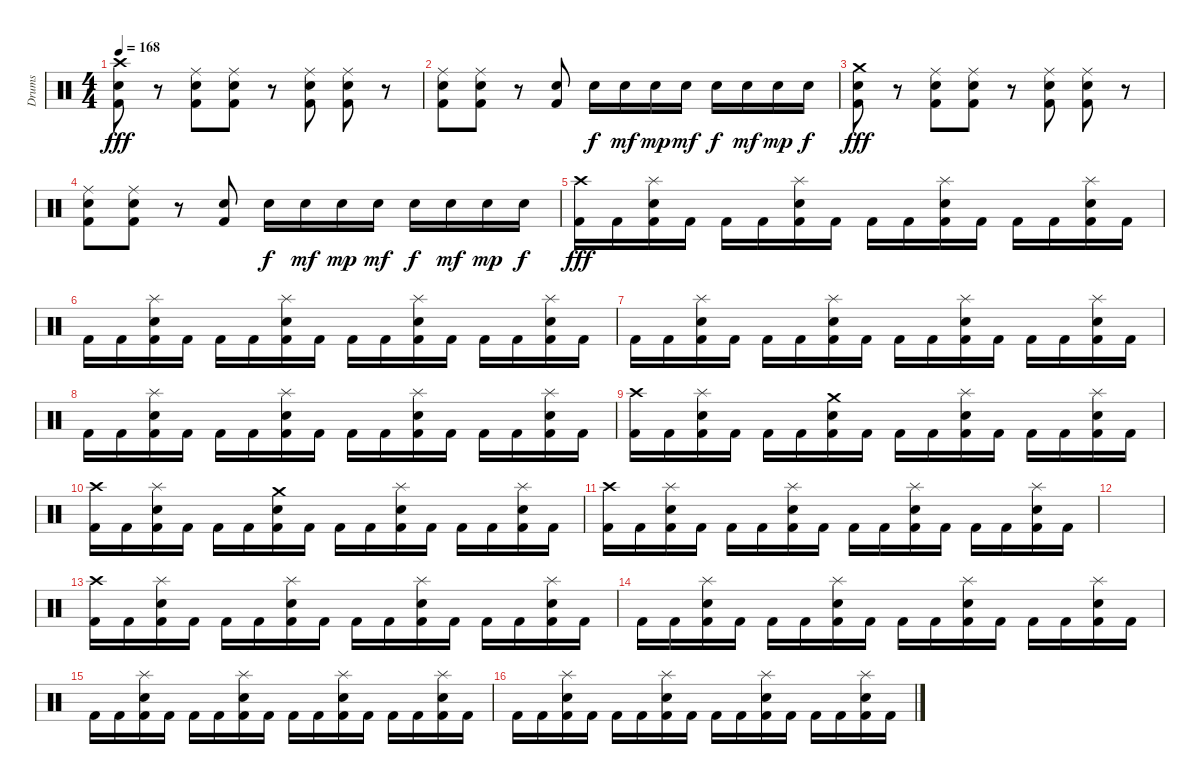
\track ("Drums" "Drums") {instrument percussion}
\staff {score}
\articulation defaults
\ts (4 4)
\tempo 168
\clef neutral
\ks c
("Crash high (hit)" "Snare (hit) 2" "Kick (hit) 2").8{dy fff} r.8 ("Ride (middle)" "Snare (hit) 2" "Kick (hit) 2").8 ("Ride (middle)" "Snare (hit) 2" "Kick (hit) 2").8 r.8 ("Ride (middle)" "Snare (hit) 2" "Kick (hit) 2").8 ("Ride (middle)" "Snare (hit) 2" "Kick (hit) 2").8 r.8 |
("Ride (middle)" "Snare (hit) 2" "Kick (hit) 2").8 ("Ride (middle)" "Snare (hit) 2" "Kick (hit) 2").8 r.8 ("Snare (hit) 2" "Kick (hit) 2").8 "Snare (hit) 2".16{dy f} "Snare (hit) 2".16{dy mf} "Snare (hit) 2".16{dy mp} "Snare (hit) 2".16{dy mf} "Snare (hit) 2".16{dy f} "Snare (hit) 2".16{dy mf} "Snare (hit) 2".16{dy mp} "Snare (hit) 2".16{dy f} |
("Crash medium (hit)" "Snare (hit) 2" "Kick (hit) 2").8{dy fff} r.8 ("Ride (middle)" "Snare (hit) 2" "Kick (hit) 2").8 ("Ride (middle)" "Snare (hit) 2" "Kick (hit) 2").8 r.8 ("Ride (middle)" "Snare (hit) 2" "Kick (hit) 2").8 ("Ride (middle)" "Snare (hit) 2" "Kick (hit) 2").8 r.8 |
("Ride (middle)" "Snare (hit) 2" "Kick (hit) 2").8 ("Ride (middle)" "Snare (hit) 2" "Kick (hit) 2").8 r.8 ("Snare (hit) 2" "Kick (hit) 2").8 "Snare (hit) 2".16{dy f} "Snare (hit) 2".16{dy mf} "Snare (hit) 2".16{dy mp} "Snare (hit) 2".16{dy mf} "Snare (hit) 2".16{dy f} "Snare (hit) 2".16{dy mf} "Snare (hit) 2".16{dy mp} "Snare (hit) 2".16{dy f} |
("Crash high (hit)" "Kick (hit) 2").16{dy fff} "Kick (hit) 2".16 ("Splash (hit)" "Snare (hit) 2" "Kick (hit) 2").16 "Kick (hit) 2".16 "Kick (hit) 2".16 "Kick (hit) 2".16 ("Splash (hit)" "Snare (hit) 2" "Kick (hit) 2").16 "Kick (hit) 2".16 "Kick (hit) 2".16 "Kick (hit) 2".16 ("Splash (hit)" "Snare (hit) 2" "Kick (hit) 2").16 "Kick (hit) 2".16 "Kick (hit) 2".16 "Kick (hit) 2".16 ("Splash (hit)" "Snare (hit) 2" "Kick (hit) 2").16 "Kick (hit) 2".16 |
"Kick (hit) 2".16 "Kick (hit) 2".16 ("Splash (hit)" "Snare (hit) 2" "Kick (hit) 2").16 "Kick (hit) 2".16 "Kick (hit) 2".16 "Kick (hit) 2".16 ("Splash (hit)" "Snare (hit) 2" "Kick (hit) 2").16 "Kick (hit) 2".16 "Kick (hit) 2".16 "Kick (hit) 2".16 ("Splash (hit)" "Snare (hit) 2" "Kick (hit) 2").16 "Kick (hit) 2".16 "Kick (hit) 2".16 "Kick (hit) 2".16 ("Splash (hit)" "Snare (hit) 2" "Kick (hit) 2").16 "Kick (hit) 2".16 |
"Kick (hit) 2".16 "Kick (hit) 2".16 ("Splash (hit)" "Snare (hit) 2" "Kick (hit) 2").16 "Kick (hit) 2".16 "Kick (hit) 2".16 "Kick (hit) 2".16 ("Splash (hit)" "Snare (hit) 2" "Kick (hit) 2").16 "Kick (hit) 2".16 "Kick (hit) 2".16 "Kick (hit) 2".16 ("Splash (hit)" "Snare (hit) 2" "Kick (hit) 2").16 "Kick (hit) 2".16 "Kick (hit) 2".16 "Kick (hit) 2".16 ("Splash (hit)" "Snare (hit) 2" "Kick (hit) 2").16 "Kick (hit) 2".16 |
"Kick (hit) 2".16 "Kick (hit) 2".16 ("Splash (hit)" "Snare (hit) 2" "Kick (hit) 2").16 "Kick (hit) 2".16 "Kick (hit) 2".16 "Kick (hit) 2".16 ("Splash (hit)" "Snare (hit) 2" "Kick (hit) 2").16 "Kick (hit) 2".16 "Kick (hit) 2".16 "Kick (hit) 2".16 ("Splash (hit)" "Snare (hit) 2" "Kick (hit) 2").16 "Kick (hit) 2".16 "Kick (hit) 2".16 "Kick (hit) 2".16 ("Splash (hit)" "Snare (hit) 2" "Kick (hit) 2").16 "Kick (hit) 2".16 |
("Crash high (hit)" "Kick (hit) 2").16 "Kick (hit) 2".16 ("Splash (hit)" "Snare (hit) 2" "Kick (hit) 2").16 "Kick (hit) 2".16 "Kick (hit) 2".16 "Kick (hit) 2".16 ("Crash medium (hit)" "Snare (hit) 2" "Kick (hit) 2").16 "Kick (hit) 2".16 "Kick (hit) 2".16 "Kick (hit) 2".16 ("Splash (hit)" "Snare (hit) 2" "Kick (hit) 2").16 "Kick (hit) 2".16 "Kick (hit) 2".16 "Kick (hit) 2".16 ("Splash (hit)" "Snare (hit) 2" "Kick (hit) 2").16 "Kick (hit) 2".16 |
("Crash high (hit)" "Kick (hit) 2").16 "Kick (hit) 2".16 ("Splash (hit)" "Snare (hit) 2" "Kick (hit) 2").16 "Kick (hit) 2".16 "Kick (hit) 2".16 "Kick (hit) 2".16 ("Crash medium (hit)" "Snare (hit) 2" "Kick (hit) 2").16 "Kick (hit) 2".16 "Kick (hit) 2".16 "Kick (hit) 2".16 ("Splash (hit)" "Snare (hit) 2" "Kick (hit) 2").16 "Kick (hit) 2".16 "Kick (hit) 2".16 "Kick (hit) 2".16 ("Splash (hit)" "Snare (hit) 2" "Kick (hit) 2").16 "Kick (hit) 2".16 |
("Crash high (hit)" "Kick (hit) 2").16 "Kick (hit) 2".16 ("Splash (hit)" "Snare (hit) 2" "Kick (hit) 2").16 "Kick (hit) 2".16 "Kick (hit) 2".16 "Kick (hit) 2".16 ("Splash (hit)" "Snare (hit) 2" "Kick (hit) 2").16 "Kick (hit) 2".16 "Kick (hit) 2".16 "Kick (hit) 2".16 ("Splash (hit)" "Snare (hit) 2" "Kick (hit) 2").16 "Kick (hit) 2".16 "Kick (hit) 2".16 "Kick (hit) 2".16 ("Splash (hit)" "Snare (hit) 2" "Kick (hit) 2").16 "Kick (hit) 2".16 |
|
("Crash high (hit)" "Kick (hit) 2").16 "Kick (hit) 2".16 ("Splash (hit)" "Snare (hit) 2" "Kick (hit) 2").16 "Kick (hit) 2".16 "Kick (hit) 2".16 "Kick (hit) 2".16 ("Splash (hit)" "Snare (hit) 2" "Kick (hit) 2").16 "Kick (hit) 2".16 "Kick (hit) 2".16 "Kick (hit) 2".16 ("Splash (hit)" "Snare (hit) 2" "Kick (hit) 2").16 "Kick (hit) 2".16 "Kick (hit) 2".16 "Kick (hit) 2".16 ("Splash (hit)" "Snare (hit) 2" "Kick (hit) 2").16 "Kick (hit) 2".16 |
"Kick (hit) 2".16 "Kick (hit) 2".16 ("Splash (hit)" "Snare (hit) 2" "Kick (hit) 2").16 "Kick (hit) 2".16 "Kick (hit) 2".16 "Kick (hit) 2".16 ("Splash (hit)" "Snare (hit) 2" "Kick (hit) 2").16 "Kick (hit) 2".16 "Kick (hit) 2".16 "Kick (hit) 2".16 ("Splash (hit)" "Snare (hit) 2" "Kick (hit) 2").16 "Kick (hit) 2".16 "Kick (hit) 2".16 "Kick (hit) 2".16 ("Splash (hit)" "Snare (hit) 2" "Kick (hit) 2").16 "Kick (hit) 2".16 |
"Kick (hit) 2".16 "Kick (hit) 2".16 ("Splash (hit)" "Snare (hit) 2" "Kick (hit) 2").16 "Kick (hit) 2".16 "Kick (hit) 2".16 "Kick (hit) 2".16 ("Splash (hit)" "Snare (hit) 2" "Kick (hit) 2").16 "Kick (hit) 2".16 "Kick (hit) 2".16 "Kick (hit) 2".16 ("Splash (hit)" "Snare (hit) 2" "Kick (hit) 2").16 "Kick (hit) 2".16 "Kick (hit) 2".16 "Kick (hit) 2".16 ("Splash (hit)" "Snare (hit) 2" "Kick (hit) 2").16 "Kick (hit) 2".16 |
"Kick (hit) 2".16 "Kick (hit) 2".16 ("Splash (hit)" "Snare (hit) 2" "Kick (hit) 2").16 "Kick (hit) 2".16 "Kick (hit) 2".16 "Kick (hit) 2".16 ("Splash (hit)" "Snare (hit) 2" "Kick (hit) 2").16 "Kick (hit) 2".16 "Kick (hit) 2".16 "Kick (hit) 2".16 ("Splash (hit)" "Snare (hit) 2" "Kick (hit) 2").16 "Kick (hit) 2".16 "Kick (hit) 2".16 "Kick (hit) 2".16 ("Splash (hit)" "Snare (hit) 2" "Kick (hit) 2").16 "Kick (hit) 2".16
